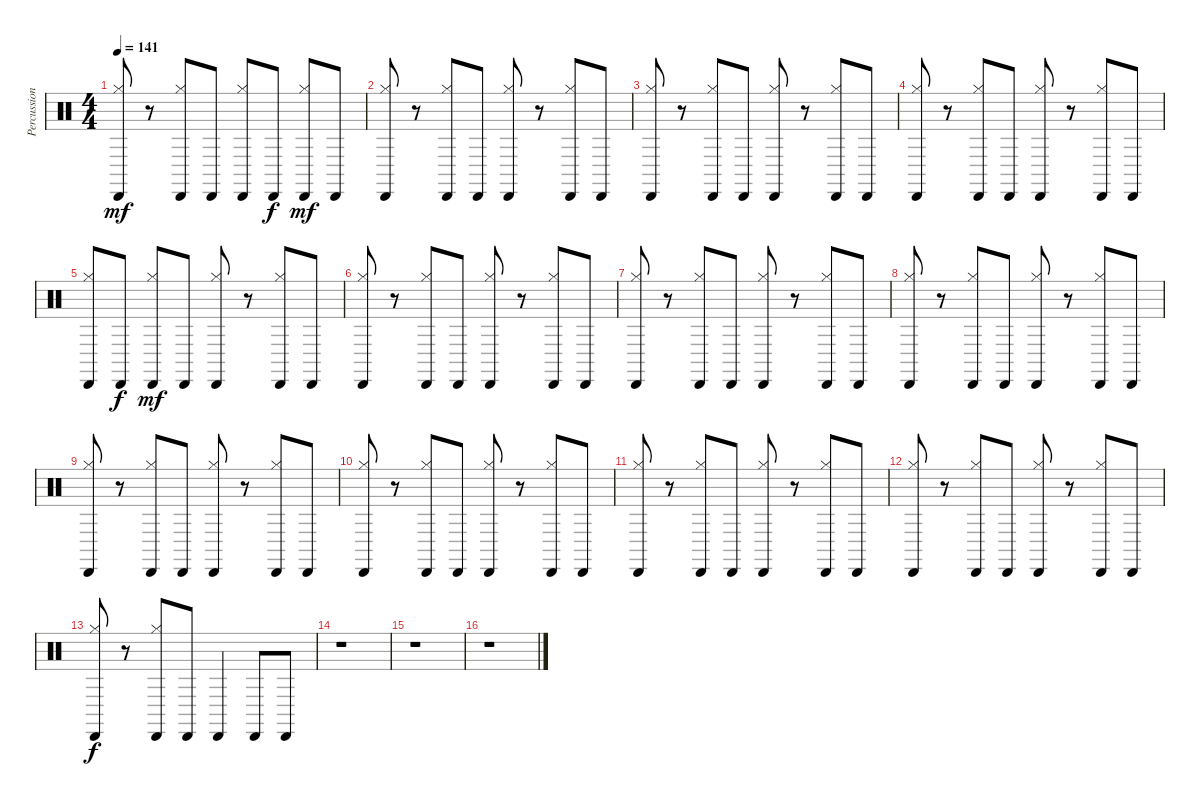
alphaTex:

\track ("Percussion" "Percussion") {instrument percussion}
\staff {score}
\articulation defaults
\ts (4 4)
\tempo 141
\clef neutral
\ks c
("Hi-Hat (closed)" "Cabasa (hit)").8{dy mf} r.8 ("Hi-Hat (closed)" "Cabasa (hit)").8 "Cabasa (hit)".8 ("Hi-Hat (closed)" "Cabasa (hit)").8 "Cabasa (hit)".8{dy f} ("Hi-Hat (closed)" "Cabasa (hit)").8{dy mf} "Cabasa (hit)".8 |
("Hi-Hat (closed)" "Cabasa (hit)").8 r.8 ("Hi-Hat (closed)" "Cabasa (hit)").8 "Cabasa (hit)".8 ("Hi-Hat (closed)" "Cabasa (hit)").8 r.8 ("Hi-Hat (closed)" "Cabasa (hit)").8 "Cabasa (hit)".8 |
("Hi-Hat (closed)" "Cabasa (hit)").8 r.8 ("Hi-Hat (closed)" "Cabasa (hit)").8 "Cabasa (hit)".8 ("Hi-Hat (closed)" "Cabasa (hit)").8 r.8 ("Hi-Hat (closed)" "Cabasa (hit)").8 "Cabasa (hit)".8 |
("Hi-Hat (closed)" "Cabasa (hit)").8 r.8 ("Hi-Hat (closed)" "Cabasa (hit)").8 "Cabasa (hit)".8 ("Hi-Hat (closed)" "Cabasa (hit)").8 r.8 ("Hi-Hat (closed)" "Cabasa (hit)").8 "Cabasa (hit)".8 |
("Hi-Hat (closed)" "Cabasa (hit)").8 "Cabasa (hit)".8{dy f} ("Hi-Hat (closed)" "Cabasa (hit)").8{dy mf} "Cabasa (hit)".8 ("Hi-Hat (closed)" "Cabasa (hit)").8 r.8 ("Hi-Hat (closed)" "Cabasa (hit)").8 "Cabasa (hit)".8 |
("Hi-Hat (closed)" "Cabasa (hit)").8 r.8 ("Hi-Hat (closed)" "Cabasa (hit)").8 "Cabasa (hit)".8 ("Hi-Hat (closed)" "Cabasa (hit)").8 r.8 ("Hi-Hat (closed)" "Cabasa (hit)").8 "Cabasa (hit)".8 |
("Hi-Hat (closed)" "Cabasa (hit)").8 r.8 ("Hi-Hat (closed)" "Cabasa (hit)").8 "Cabasa (hit)".8 ("Hi-Hat (closed)" "Cabasa (hit)").8 r.8 ("Hi-Hat (closed)" "Cabasa (hit)").8 "Cabasa (hit)".8 |
("Hi-Hat (closed)" "Cabasa (hit)").8 r.8 ("Hi-Hat (closed)" "Cabasa (hit)").8 "Cabasa (hit)".8 ("Hi-Hat (closed)" "Cabasa (hit)").8 r.8 ("Hi-Hat (closed)" "Cabasa (hit)").8 "Cabasa (hit)".8 |
("Hi-Hat (closed)" "Cabasa (hit)").8 r.8 ("Hi-Hat (closed)" "Cabasa (hit)").8 "Cabasa (hit)".8 ("Hi-Hat (closed)" "Cabasa (hit)").8 r.8 ("Hi-Hat (closed)" "Cabasa (hit)").8 "Cabasa (hit)".8 |
("Hi-Hat (closed)" "Cabasa (hit)").8 r.8 ("Hi-Hat (closed)" "Cabasa (hit)").8 "Cabasa (hit)".8 ("Hi-Hat (closed)" "Cabasa (hit)").8 r.8 ("Hi-Hat (closed)" "Cabasa (hit)").8 "Cabasa (hit)".8 |
("Hi-Hat (closed)" "Cabasa (hit)").8 r.8 ("Hi-Hat (closed)" "Cabasa (hit)").8 "Cabasa (hit)".8 ("Hi-Hat (closed)" "Cabasa (hit)").8 r.8 ("Hi-Hat (closed)" "Cabasa (hit)").8 "Cabasa (hit)".8 |
("Hi-Hat (closed)" "Cabasa (hit)").8 r.8 ("Hi-Hat (closed)" "Cabasa (hit)").8 "Cabasa (hit)".8 ("Hi-Hat (closed)" "Cabasa (hit)").8 r.8 ("Hi-Hat (closed)" "Cabasa (hit)").8 "Cabasa (hit)".8 |
("Hi-Hat (closed)" "Cabasa (hit)").8{dy f} r.8 ("Hi-Hat (closed)" "Cabasa (hit)").8 "Cabasa (hit)".8 "Cabasa (hit)".4 "Cabasa (hit)".8 "Cabasa (hit)".8 |
r.1 |
r.1 |
r.1
